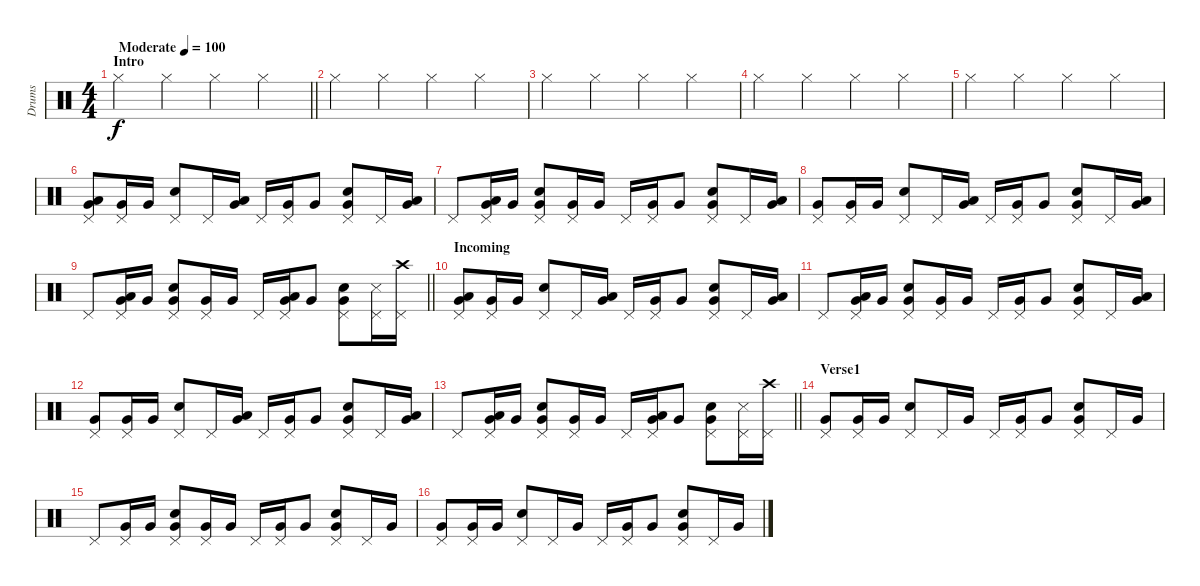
\track ("Drums" "Drums") {instrument percussion}
\staff {score}
\articulation defaults
\ts (4 4)
\section ("" "Intro")
\tempo (100 "Moderate")
\clef neutral
\barLineRight lightlight
\ks c "Hi-Hat (closed)".4{dy f} "Hi-Hat (closed)".4 "Hi-Hat (closed)".4 "Hi-Hat (closed)".4
|
"Hi-Hat (closed)".4 "Hi-Hat (closed)".4 "Hi-Hat (closed)".4 "Hi-Hat (closed)".4 |
"Hi-Hat (closed)".4 "Hi-Hat (closed)".4 "Hi-Hat (closed)".4 "Hi-Hat (closed)".4 |
"Hi-Hat (closed)".4 "Hi-Hat (closed)".4 "Hi-Hat (closed)".4 "Hi-Hat (closed)".4 |
"Hi-Hat (closed)".4 "Hi-Hat (closed)".4 "Hi-Hat (closed)".4 "Hi-Hat (closed)".4 |
("Low Floor Tom (hit)" "Very Low Tom (hit)" "Pedal Hi-Hat (hit)").8 ("Very Low Tom (hit)" "Pedal Hi-Hat (hit)").16 "Very Low Tom (hit)".16 ("Snare (hit) 2" "Pedal Hi-Hat (hit)").8 "Pedal Hi-Hat (hit)".16 ("Low Floor Tom (hit)" "Very Low Tom (hit)").16 "Pedal Hi-Hat (hit)".16 ("Very Low Tom (hit)" "Pedal Hi-Hat (hit)").16 "Very Low Tom (hit)".8 ("Snare (hit) 2" "Very Low Tom (hit)" "Pedal Hi-Hat (hit)").8 "Pedal Hi-Hat (hit)".16 ("Low Floor Tom (hit)" "Very Low Tom (hit)").16 |
"Pedal Hi-Hat (hit)".8 ("Low Floor Tom (hit)" "Very Low Tom (hit)" "Pedal Hi-Hat (hit)").16 "Very Low Tom (hit)".16 ("Snare (hit) 2" "Very Low Tom (hit)" "Pedal Hi-Hat (hit)").8 ("Very Low Tom (hit)" "Pedal Hi-Hat (hit)").16 "Very Low Tom (hit)".16 "Pedal Hi-Hat (hit)".16 ("Very Low Tom (hit)" "Pedal Hi-Hat (hit)").16 "Very Low Tom (hit)".8 ("Snare (hit) 2" "Very Low Tom (hit)" "Pedal Hi-Hat (hit)").8 "Pedal Hi-Hat (hit)".16 ("Low Floor Tom (hit)" "Very Low Tom (hit)").16 |
("Very Low Tom (hit)" "Pedal Hi-Hat (hit)").8 ("Very Low Tom (hit)" "Pedal Hi-Hat (hit)").16 "Very Low Tom (hit)".16 ("Snare (hit) 2" "Pedal Hi-Hat (hit)").8 "Pedal Hi-Hat (hit)".16 ("Low Floor Tom (hit)" "Very Low Tom (hit)").16 "Pedal Hi-Hat (hit)".16 ("Very Low Tom (hit)" "Pedal Hi-Hat (hit)").16 "Very Low Tom (hit)".8 ("Snare (hit) 2" "Very Low Tom (hit)" "Pedal Hi-Hat (hit)").8 "Pedal Hi-Hat (hit)".16 ("Low Floor Tom (hit)" "Very Low Tom (hit)").16 |
\barLineRight lightlight "Pedal Hi-Hat (hit)".8
("Low Floor Tom (hit)" "Very Low Tom (hit)" "Pedal Hi-Hat (hit)").16 "Very Low Tom (hit)".16 ("Snare (hit) 2" "Very Low Tom (hit)" "Pedal Hi-Hat (hit)").8 ("Very Low Tom (hit)" "Pedal Hi-Hat (hit)").16 "Very Low Tom (hit)".16 "Pedal Hi-Hat (hit)".16 ("Low Floor Tom (hit)" "Very Low Tom (hit)" "Pedal Hi-Hat (hit)").16 "Very Low Tom (hit)".8 ("Snare (hit) 2" "Very Low Tom (hit)" "Pedal Hi-Hat (hit)").8 ("Snare (side stick) 3" "Pedal Hi-Hat (hit)").16 ("Crash high (hit)" "Pedal Hi-Hat (hit)").16 |
\section ("" "Incoming")
("Low Floor Tom (hit)" "Very Low Tom (hit)" "Pedal Hi-Hat (hit)").8 ("Very Low Tom (hit)" "Pedal Hi-Hat (hit)").16 "Very Low Tom (hit)".16 ("Snare (hit) 2" "Pedal Hi-Hat (hit)").8 "Pedal Hi-Hat (hit)".16 ("Low Floor Tom (hit)" "Very Low Tom (hit)").16 "Pedal Hi-Hat (hit)".16 ("Very Low Tom (hit)" "Pedal Hi-Hat (hit)").16 "Very Low Tom (hit)".8 ("Snare (hit) 2" "Very Low Tom (hit)" "Pedal Hi-Hat (hit)").8 "Pedal Hi-Hat (hit)".16 ("Low Floor Tom (hit)" "Very Low Tom (hit)").16 |
"Pedal Hi-Hat (hit)".8 ("Low Floor Tom (hit)" "Very Low Tom (hit)" "Pedal Hi-Hat (hit)").16 "Very Low Tom (hit)".16 ("Snare (hit) 2" "Very Low Tom (hit)" "Pedal Hi-Hat (hit)").8 ("Very Low Tom (hit)" "Pedal Hi-Hat (hit)").16 "Very Low Tom (hit)".16 "Pedal Hi-Hat (hit)".16 ("Very Low Tom (hit)" "Pedal Hi-Hat (hit)").16 "Very Low Tom (hit)".8 ("Snare (hit) 2" "Very Low Tom (hit)" "Pedal Hi-Hat (hit)").8 "Pedal Hi-Hat (hit)".16 ("Low Floor Tom (hit)" "Very Low Tom (hit)").16 |
("Very Low Tom (hit)" "Pedal Hi-Hat (hit)").8 ("Very Low Tom (hit)" "Pedal Hi-Hat (hit)").16 "Very Low Tom (hit)".16 ("Snare (hit) 2" "Pedal Hi-Hat (hit)").8 "Pedal Hi-Hat (hit)".16 ("Low Floor Tom (hit)" "Very Low Tom (hit)").16 "Pedal Hi-Hat (hit)".16 ("Very Low Tom (hit)" "Pedal Hi-Hat (hit)").16 "Very Low Tom (hit)".8 ("Snare (hit) 2" "Very Low Tom (hit)" "Pedal Hi-Hat (hit)").8 "Pedal Hi-Hat (hit)".16 ("Low Floor Tom (hit)" "Very Low Tom (hit)").16 |
\barLineRight lightlight "Pedal Hi-Hat (hit)".8
("Low Floor Tom (hit)" "Very Low Tom (hit)" "Pedal Hi-Hat (hit)").16 "Very Low Tom (hit)".16 ("Snare (hit) 2" "Very Low Tom (hit)" "Pedal Hi-Hat (hit)").8 ("Very Low Tom (hit)" "Pedal Hi-Hat (hit)").16 "Very Low Tom (hit)".16 "Pedal Hi-Hat (hit)".16 ("Low Floor Tom (hit)" "Very Low Tom (hit)" "Pedal Hi-Hat (hit)").16 "Very Low Tom (hit)".8 ("Snare (hit) 2" "Very Low Tom (hit)" "Pedal Hi-Hat (hit)").8 ("Snare (side stick) 3" "Pedal Hi-Hat (hit)").16 ("Crash high (hit)" "Pedal Hi-Hat (hit)").16 |
\section ("" "Verse1")
("Very Low Tom (hit)" "Pedal Hi-Hat (hit)").8 ("Very Low Tom (hit)" "Pedal Hi-Hat (hit)").16 "Very Low Tom (hit)".16 ("Snare (hit) 2" "Pedal Hi-Hat (hit)").8 "Pedal Hi-Hat (hit)".16 "Very Low Tom (hit)".16 "Pedal Hi-Hat (hit)".16 ("Very Low Tom (hit)" "Pedal Hi-Hat (hit)").16 "Very Low Tom (hit)".8 ("Snare (hit) 2" "Very Low Tom (hit)" "Pedal Hi-Hat (hit)").8 "Pedal Hi-Hat (hit)".16 "Very Low Tom (hit)".16 |
"Pedal Hi-Hat (hit)".8 ("Very Low Tom (hit)" "Pedal Hi-Hat (hit)").16 "Very Low Tom (hit)".16 ("Snare (hit) 2" "Very Low Tom (hit)" "Pedal Hi-Hat (hit)").8 ("Very Low Tom (hit)" "Pedal Hi-Hat (hit)").16 "Very Low Tom (hit)".16 "Pedal Hi-Hat (hit)".16 ("Very Low Tom (hit)" "Pedal Hi-Hat (hit)").16 "Very Low Tom (hit)".8 ("Snare (hit) 2" "Very Low Tom (hit)" "Pedal Hi-Hat (hit)").8 "Pedal Hi-Hat (hit)".16 "Very Low Tom (hit)".16 |
("Very Low Tom (hit)" "Pedal Hi-Hat (hit)").8 ("Very Low Tom (hit)" "Pedal Hi-Hat (hit)").16 "Very Low Tom (hit)".16 ("Snare (hit) 2" "Pedal Hi-Hat (hit)").8 "Pedal Hi-Hat (hit)".16 "Very Low Tom (hit)".16 "Pedal Hi-Hat (hit)".16 ("Very Low Tom (hit)" "Pedal Hi-Hat (hit)").16 "Very Low Tom (hit)".8 ("Snare (hit) 2" "Very Low Tom (hit)" "Pedal Hi-Hat (hit)").8 "Pedal Hi-Hat (hit)".16 "Very Low Tom (hit)".16
